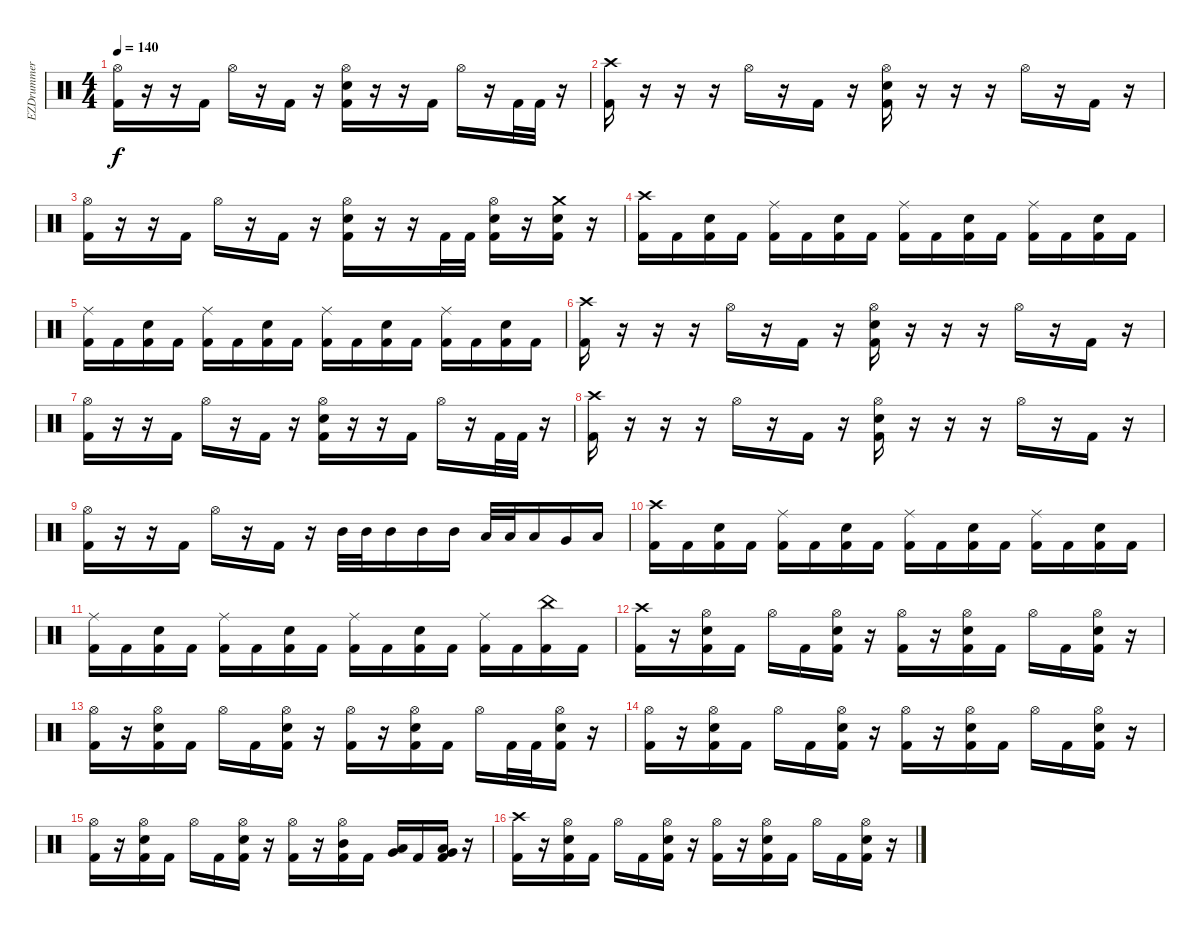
\track ("EZDrummer" "EZDrummer") {instrument percussion}
\staff {score}
\articulation defaults
\ts (4 4)
\tempo 140
\clef neutral
\ks c
("Hi-Hat (open)" "Kick (hit) 2").16{dy f} r.16 r.16 "Kick (hit) 2".16 "Hi-Hat (open)".16 r.16 "Kick (hit) 2".16 r.16 ("Hi-Hat (open)" "Snare (hit) 2" "Kick (hit) 2").16 r.16 r.16 "Kick (hit) 2".16 "Hi-Hat (open)".16 r.16 "Kick (hit) 2".32 "Kick (hit) 2".32 r.16 |
("Crash high (hit)" "Kick (hit) 2").16 r.16 r.16 r.16 "Hi-Hat (open)".16 r.16 "Kick (hit) 2".16 r.16 ("Hi-Hat (open)" "Snare (hit) 2" "Kick (hit) 2").16 r.16 r.16 r.16 "Hi-Hat (open)".16 r.16 "Kick (hit) 2".16 r.16 |
("Hi-Hat (open)" "Kick (hit) 2").16 r.16 r.16 "Kick (hit) 2".16 "Hi-Hat (open)".16 r.16 "Kick (hit) 2".16 r.16 ("Hi-Hat (open)" "Snare (hit) 2" "Kick (hit) 2").16 r.16 r.16 "Kick (hit) 2".32 "Kick (hit) 2".32 ("Hi-Hat (open)" "Snare (hit) 2" "Kick (hit) 2").16 r.16 ("Crash medium (hit)" "Snare (hit) 2" "Kick (hit) 2").16 r.16 |
("Crash high (hit)" "Kick (hit) 2").16 "Kick (hit) 2".16 ("Snare (hit) 2" "Kick (hit) 2").16 "Kick (hit) 2".16 ("Ride (middle)" "Kick (hit) 2").16 "Kick (hit) 2".16 ("Snare (hit) 2" "Kick (hit) 2").16 "Kick (hit) 2".16 ("Ride (middle)" "Kick (hit) 2").16 "Kick (hit) 2".16 ("Snare (hit) 2" "Kick (hit) 2").16 "Kick (hit) 2".16 ("Ride (middle)" "Kick (hit) 2").16 "Kick (hit) 2".16 ("Snare (hit) 2" "Kick (hit) 2").16 "Kick (hit) 2".16 |
("Ride (middle)" "Kick (hit) 2").16 "Kick (hit) 2".16 ("Snare (hit) 2" "Kick (hit) 2").16 "Kick (hit) 2".16 ("Ride (middle)" "Kick (hit) 2").16 "Kick (hit) 2".16 ("Snare (hit) 2" "Kick (hit) 2").16 "Kick (hit) 2".16 ("Ride (middle)" "Kick (hit) 2").16 "Kick (hit) 2".16 ("Snare (hit) 2" "Kick (hit) 2").16 "Kick (hit) 2".16 ("Ride (middle)" "Kick (hit) 2").16 "Kick (hit) 2".16 ("Snare (hit) 2" "Kick (hit) 2").16 "Kick (hit) 2".16 |
("Crash high (hit)" "Kick (hit) 2").16 r.16 r.16 r.16 "Hi-Hat (open)".16 r.16 "Kick (hit) 2".16 r.16 ("Hi-Hat (open)" "Snare (hit) 2" "Kick (hit) 2").16 r.16 r.16 r.16 "Hi-Hat (open)".16 r.16 "Kick (hit) 2".16 r.16 |
("Hi-Hat (open)" "Kick (hit) 2").16 r.16 r.16 "Kick (hit) 2".16 "Hi-Hat (open)".16 r.16 "Kick (hit) 2".16 r.16 ("Hi-Hat (open)" "Snare (hit) 2" "Kick (hit) 2").16 r.16 r.16 "Kick (hit) 2".16 "Hi-Hat (open)".16 r.16 "Kick (hit) 2".32 "Kick (hit) 2".32 r.16 |
("Crash high (hit)" "Kick (hit) 2").16 r.16 r.16 r.16 "Hi-Hat (open)".16 r.16 "Kick (hit) 2".16 r.16 ("Hi-Hat (open)" "Snare (hit) 2" "Kick (hit) 2").16 r.16 r.16 r.16 "Hi-Hat (open)".16 r.16 "Kick (hit) 2".16 r.16 |
("Hi-Hat (open)" "Kick (hit) 2").16 r.16 r.16 "Kick (hit) 2".16 "Hi-Hat (open)".16 r.16 "Kick (hit) 2".16 r.16 "Mid Tom (hit)".32 "Mid Tom (hit)".32 "Mid Tom (hit)".16 "Mid Tom (hit)".16 "Mid Tom (hit)".16 "Low Tom (hit)".32 "Low Tom (hit)".32 "Low Tom (hit)".16 "Very Low Tom (hit)".16 "Low Floor Tom (hit)".16 |
("Crash high (hit)" "Kick (hit) 2").16 "Kick (hit) 2".16 ("Snare (hit) 2" "Kick (hit) 2").16 "Kick (hit) 2".16 ("Ride (middle)" "Kick (hit) 2").16 "Kick (hit) 2".16 ("Snare (hit) 2" "Kick (hit) 2").16 "Kick (hit) 2".16 ("Ride (middle)" "Kick (hit) 2").16 "Kick (hit) 2".16 ("Snare (hit) 2" "Kick (hit) 2").16 "Kick (hit) 2".16 ("Ride (middle)" "Kick (hit) 2").16 "Kick (hit) 2".16 ("Snare (hit) 2" "Kick (hit) 2").16 "Kick (hit) 2".16 |
("Ride (middle)" "Kick (hit) 2").16 "Kick (hit) 2".16 ("Snare (hit) 2" "Kick (hit) 2").16 "Kick (hit) 2".16 ("Ride (middle)" "Kick (hit) 2").16 "Kick (hit) 2".16 ("Snare (hit) 2" "Kick (hit) 2").16 "Kick (hit) 2".16 ("Ride (middle)" "Kick (hit) 2").16 "Kick (hit) 2".16 ("Snare (hit) 2" "Kick (hit) 2").16 "Kick (hit) 2".16 ("Ride (middle)" "Kick (hit) 2").16 "Kick (hit) 2".16 ("China (hit)" "Kick (hit) 2").16 "Kick (hit) 2".16 |
("Crash high (hit)" "Kick (hit) 2").16 r.16 ("Hi-Hat (open)" "Snare (hit) 2" "Kick (hit) 2").16 "Kick (hit) 2".16 "Hi-Hat (open)".16 "Kick (hit) 2".16 ("Hi-Hat (open)" "Snare (hit) 2" "Kick (hit) 2").16 r.16 ("Hi-Hat (open)" "Kick (hit) 2").16 r.16 ("Hi-Hat (open)" "Snare (hit) 2" "Kick (hit) 2").16 "Kick (hit) 2".16 "Hi-Hat (open)".16 "Kick (hit) 2".16 ("Hi-Hat (open)" "Snare (hit) 2" "Kick (hit) 2").16 r.16 |
("Hi-Hat (open)" "Kick (hit) 2").16 r.16 ("Hi-Hat (open)" "Snare (hit) 2" "Kick (hit) 2").16 "Kick (hit) 2".16 "Hi-Hat (open)".16 "Kick (hit) 2".16 ("Hi-Hat (open)" "Snare (hit) 2" "Kick (hit) 2").16 r.16 ("Hi-Hat (open)" "Kick (hit) 2").16 r.16 ("Hi-Hat (open)" "Snare (hit) 2" "Kick (hit) 2").16 "Kick (hit) 2".16 "Hi-Hat (open)".16 "Kick (hit) 2".32 "Kick (hit) 2".32 ("Hi-Hat (open)" "Snare (hit) 2" "Kick (hit) 2").16 r.16 |
("Hi-Hat (open)" "Kick (hit) 2").16 r.16 ("Hi-Hat (open)" "Snare (hit) 2" "Kick (hit) 2").16 "Kick (hit) 2".16 "Hi-Hat (open)".16 "Kick (hit) 2".16 ("Hi-Hat (open)" "Snare (hit) 2" "Kick (hit) 2").16 r.16 ("Hi-Hat (open)" "Kick (hit) 2").16 r.16 ("Hi-Hat (open)" "Snare (hit) 2" "Kick (hit) 2").16 "Kick (hit) 2".16 "Hi-Hat (open)".16 "Kick (hit) 2".16 ("Hi-Hat (open)" "Snare (hit) 2" "Kick (hit) 2").16 r.16 |
("Hi-Hat (open)" "Kick (hit) 2").16 r.16 ("Hi-Hat (open)" "Snare (hit) 2" "Kick (hit) 2").16 "Kick (hit) 2".16 "Hi-Hat (open)".16 "Kick (hit) 2".16 ("Hi-Hat (open)" "Snare (hit) 2" "Kick (hit) 2").16 r.16 ("Hi-Hat (open)" "Kick (hit) 2").16 r.16 ("Hi-Hat (open)" "Mid Tom (hit)" "Kick (hit) 2").16 "Kick (hit) 2".16 ("Low Tom (hit)" "Very Low Tom (hit)").16 "Kick (hit) 2".16 ("Low Floor Tom (hit)" "Very Low Tom (hit)" "Kick (hit) 2").16 r.16 |
("Crash high (hit)" "Kick (hit) 2").16 r.16 ("Hi-Hat (open)" "Snare (hit) 2" "Kick (hit) 2").16 "Kick (hit) 2".16 "Hi-Hat (open)".16 "Kick (hit) 2".16 ("Hi-Hat (open)" "Snare (hit) 2" "Kick (hit) 2").16 r.16 ("Hi-Hat (open)" "Kick (hit) 2").16 r.16 ("Hi-Hat (open)" "Snare (hit) 2" "Kick (hit) 2").16 "Kick (hit) 2".16 "Hi-Hat (open)".16 "Kick (hit) 2".16 ("Hi-Hat (open)" "Snare (hit) 2" "Kick (hit) 2").16 r.16
